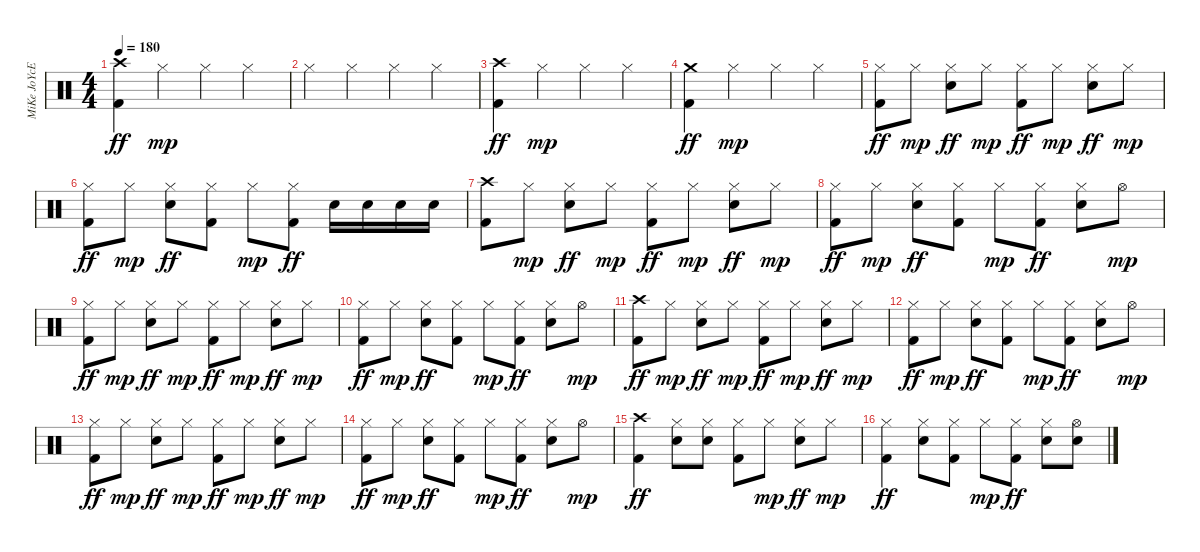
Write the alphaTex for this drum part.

\track ("MiKe JoYcE" "MiKe JoYcE") {instrument percussion}
\staff {score}
\articulation defaults
\ts (4 4)
\tempo 180
\clef neutral
\ks c
("Crash high (hit)" "Kick (hit) 2").4{dy ff} "Hi-Hat (closed)".4{dy mp} "Hi-Hat (closed)".4 "Hi-Hat (closed)".4 |
"Hi-Hat (closed)".4 "Hi-Hat (closed)".4 "Hi-Hat (closed)".4 "Hi-Hat (closed)".4 |
("Crash high (hit)" "Kick (hit) 2").4{dy ff} "Hi-Hat (closed)".4{dy mp} "Hi-Hat (closed)".4 "Hi-Hat (closed)".4 |
("Crash medium (hit)" "Kick (hit) 2").4{dy ff} "Hi-Hat (closed)".4{dy mp} "Hi-Hat (closed)".4 "Hi-Hat (closed)".4 |
("Hi-Hat (closed)" "Kick (hit) 2").8{dy ff} "Hi-Hat (closed)".8{dy mp} ("Hi-Hat (closed)" "Electric Snare (hit)").8{dy ff} "Hi-Hat (closed)".8{dy mp} ("Hi-Hat (closed)" "Kick (hit) 2").8{dy ff} "Hi-Hat (closed)".8{dy mp} ("Hi-Hat (closed)" "Electric Snare (hit)").8{dy ff} "Hi-Hat (closed)".8{dy mp} |
("Hi-Hat (closed)" "Kick (hit) 2").8{dy ff} "Hi-Hat (closed)".8{dy mp} ("Hi-Hat (closed)" "Electric Snare (hit)").8{dy ff} ("Hi-Hat (closed)" "Kick (hit) 2").8 "Hi-Hat (closed)".8{dy mp} ("Hi-Hat (closed)" "Kick (hit) 2").8{dy ff} "Electric Snare (hit)".16 "Electric Snare (hit)".16 "Electric Snare (hit)".16 "Electric Snare (hit)".16 |
("Crash high (hit)" "Kick (hit) 2").8 "Hi-Hat (closed)".8{dy mp} ("Hi-Hat (closed)" "Electric Snare (hit)").8{dy ff} "Hi-Hat (closed)".8{dy mp} ("Hi-Hat (closed)" "Kick (hit) 2").8{dy ff} "Hi-Hat (closed)".8{dy mp} ("Hi-Hat (closed)" "Electric Snare (hit)").8{dy ff} "Hi-Hat (closed)".8{dy mp} |
("Hi-Hat (closed)" "Kick (hit) 2").8{dy ff} "Hi-Hat (closed)".8{dy mp} ("Hi-Hat (closed)" "Electric Snare (hit)").8{dy ff} ("Hi-Hat (closed)" "Kick (hit) 2").8 "Hi-Hat (closed)".8{dy mp} ("Hi-Hat (closed)" "Kick (hit) 2").8{dy ff} ("Hi-Hat (closed)" "Electric Snare (hit)").8 "Hi-Hat (open)".8{dy mp} |
("Hi-Hat (closed)" "Kick (hit) 2").8{dy ff} "Hi-Hat (closed)".8{dy mp} ("Hi-Hat (closed)" "Electric Snare (hit)").8{dy ff} "Hi-Hat (closed)".8{dy mp} ("Hi-Hat (closed)" "Kick (hit) 2").8{dy ff} "Hi-Hat (closed)".8{dy mp} ("Hi-Hat (closed)" "Electric Snare (hit)").8{dy ff} "Hi-Hat (closed)".8{dy mp} |
("Hi-Hat (closed)" "Kick (hit) 2").8{dy ff} "Hi-Hat (closed)".8{dy mp} ("Hi-Hat (closed)" "Electric Snare (hit)").8{dy ff} ("Hi-Hat (closed)" "Kick (hit) 2").8 "Hi-Hat (closed)".8{dy mp} ("Hi-Hat (closed)" "Kick (hit) 2").8{dy ff} ("Hi-Hat (closed)" "Electric Snare (hit)").8 "Hi-Hat (open)".8{dy mp} |
("Crash high (hit)" "Kick (hit) 2").8{dy ff} "Hi-Hat (closed)".8{dy mp} ("Hi-Hat (closed)" "Electric Snare (hit)").8{dy ff} "Hi-Hat (closed)".8{dy mp} ("Hi-Hat (closed)" "Kick (hit) 2").8{dy ff} "Hi-Hat (closed)".8{dy mp} ("Hi-Hat (closed)" "Electric Snare (hit)").8{dy ff} "Hi-Hat (closed)".8{dy mp} |
("Hi-Hat (closed)" "Kick (hit) 2").8{dy ff} "Hi-Hat (closed)".8{dy mp} ("Hi-Hat (closed)" "Electric Snare (hit)").8{dy ff} ("Hi-Hat (closed)" "Kick (hit) 2").8 "Hi-Hat (closed)".8{dy mp} ("Hi-Hat (closed)" "Kick (hit) 2").8{dy ff} ("Hi-Hat (closed)" "Electric Snare (hit)").8 "Hi-Hat (open)".8{dy mp} |
("Hi-Hat (closed)" "Kick (hit) 2").8{dy ff} "Hi-Hat (closed)".8{dy mp} ("Hi-Hat (closed)" "Electric Snare (hit)").8{dy ff} "Hi-Hat (closed)".8{dy mp} ("Hi-Hat (closed)" "Kick (hit) 2").8{dy ff} "Hi-Hat (closed)".8{dy mp} ("Hi-Hat (closed)" "Electric Snare (hit)").8{dy ff} "Hi-Hat (closed)".8{dy mp} |
("Hi-Hat (closed)" "Kick (hit) 2").8{dy ff} "Hi-Hat (closed)".8{dy mp} ("Hi-Hat (closed)" "Electric Snare (hit)").8{dy ff} ("Hi-Hat (closed)" "Kick (hit) 2").8 "Hi-Hat (closed)".8{dy mp} ("Hi-Hat (closed)" "Kick (hit) 2").8{dy ff} ("Hi-Hat (closed)" "Electric Snare (hit)").8 "Hi-Hat (open)".8{dy mp} |
("Crash high (hit)" "Kick (hit) 2").4{dy ff} ("Hi-Hat (closed)" "Electric Snare (hit)").8 ("Hi-Hat (closed)" "Electric Snare (hit)").8 ("Hi-Hat (closed)" "Kick (hit) 2").8 "Hi-Hat (closed)".8{dy mp} ("Hi-Hat (closed)" "Electric Snare (hit)").8{dy ff} "Hi-Hat (closed)".8{dy mp} |
("Hi-Hat (closed)" "Kick (hit) 2").4{dy ff} ("Hi-Hat (closed)" "Electric Snare (hit)").8 ("Hi-Hat (closed)" "Kick (hit) 2").8 "Hi-Hat (closed)".8{dy mp} ("Hi-Hat (closed)" "Kick (hit) 2").8{dy ff} ("Hi-Hat (closed)" "Electric Snare (hit)").8 ("Hi-Hat (open)" "Electric Snare (hit)").8
